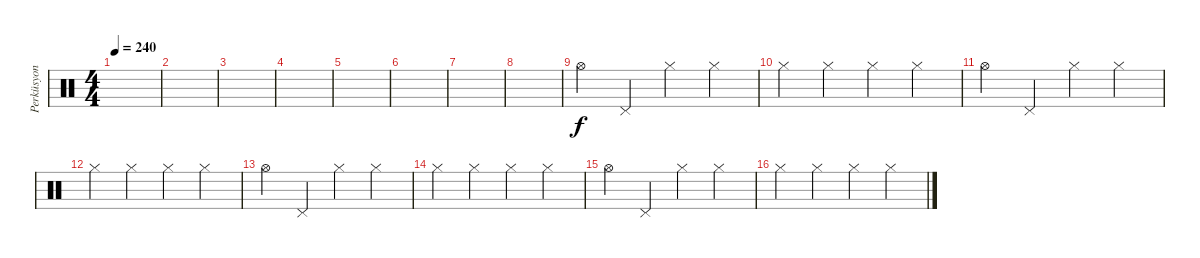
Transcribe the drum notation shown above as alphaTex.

\track ("Perküsyon" "Perküsyon") {instrument percussion}
\staff {score}
\articulation defaults
\ts (4 4)
\tempo 240
\clef neutral
\ks c
|
|
|
|
|
|
|
|
"Hi-Hat (open)".4 "Pedal Hi-Hat (hit)".4 "Hi-Hat (closed)".4 "Hi-Hat (closed)".4 |
"Hi-Hat (closed)".4 "Hi-Hat (closed)".4 "Hi-Hat (closed)".4 "Hi-Hat (closed)".4 |
"Hi-Hat (open)".4 "Pedal Hi-Hat (hit)".4 "Hi-Hat (closed)".4 "Hi-Hat (closed)".4 |
"Hi-Hat (closed)".4 "Hi-Hat (closed)".4 "Hi-Hat (closed)".4 "Hi-Hat (closed)".4 |
"Hi-Hat (open)".4 "Pedal Hi-Hat (hit)".4 "Hi-Hat (closed)".4 "Hi-Hat (closed)".4 |
"Hi-Hat (closed)".4 "Hi-Hat (closed)".4 "Hi-Hat (closed)".4 "Hi-Hat (closed)".4 |
"Hi-Hat (open)".4 "Pedal Hi-Hat (hit)".4 "Hi-Hat (closed)".4 "Hi-Hat (closed)".4 |
"Hi-Hat (closed)".4 "Hi-Hat (closed)".4 "Hi-Hat (closed)".4 "Hi-Hat (closed)".4
